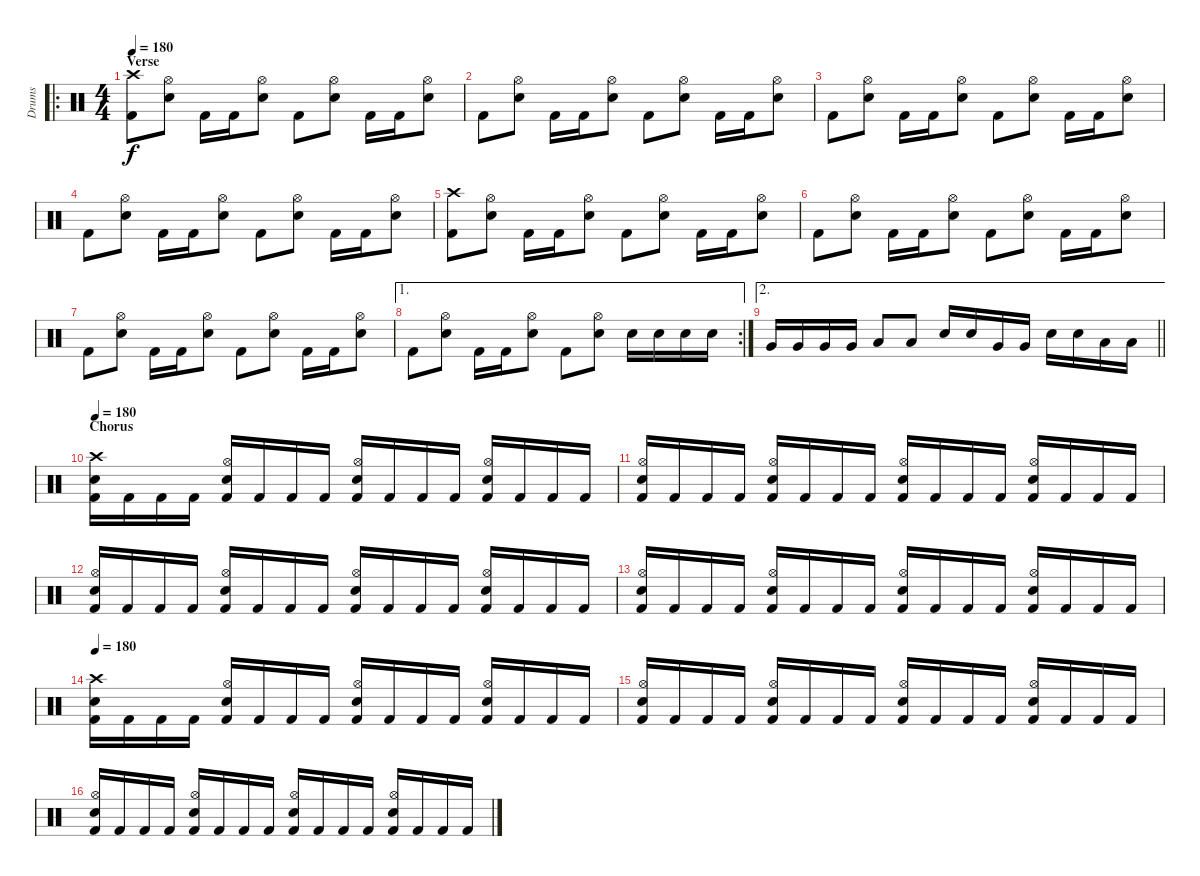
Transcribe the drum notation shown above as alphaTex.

\track ("Drums" "Drums") {instrument percussion}
\staff {score}
\articulation defaults
\ro
\ts (4 4)
\section ("" "Verse")
\tempo 180
\clef neutral
\ks c
("Crash high (hit)" "Kick (hit) 2").8{dy f} ("Hi-Hat (open)" "Electric Snare (hit)").8 "Kick (hit) 2".16 "Kick (hit) 2".16 ("Hi-Hat (open)" "Electric Snare (hit)").8 "Kick (hit) 2".8 ("Hi-Hat (open)" "Electric Snare (hit)").8 "Kick (hit) 2".16 "Kick (hit) 2".16 ("Hi-Hat (open)" "Electric Snare (hit)").8 |
"Kick (hit) 2".8 ("Hi-Hat (open)" "Electric Snare (hit)").8 "Kick (hit) 2".16 "Kick (hit) 2".16 ("Hi-Hat (open)" "Electric Snare (hit)").8 "Kick (hit) 2".8 ("Hi-Hat (open)" "Electric Snare (hit)").8 "Kick (hit) 2".16 "Kick (hit) 2".16 ("Hi-Hat (open)" "Electric Snare (hit)").8 |
"Kick (hit) 2".8 ("Hi-Hat (open)" "Electric Snare (hit)").8 "Kick (hit) 2".16 "Kick (hit) 2".16 ("Hi-Hat (open)" "Electric Snare (hit)").8 "Kick (hit) 2".8 ("Hi-Hat (open)" "Electric Snare (hit)").8 "Kick (hit) 2".16 "Kick (hit) 2".16 ("Hi-Hat (open)" "Electric Snare (hit)").8 |
"Kick (hit) 2".8 ("Hi-Hat (open)" "Electric Snare (hit)").8 "Kick (hit) 2".16 "Kick (hit) 2".16 ("Hi-Hat (open)" "Electric Snare (hit)").8 "Kick (hit) 2".8 ("Hi-Hat (open)" "Electric Snare (hit)").8 "Kick (hit) 2".16 "Kick (hit) 2".16 ("Hi-Hat (open)" "Electric Snare (hit)").8 |
("Crash high (hit)" "Kick (hit) 2").8 ("Hi-Hat (open)" "Electric Snare (hit)").8 "Kick (hit) 2".16 "Kick (hit) 2".16 ("Hi-Hat (open)" "Electric Snare (hit)").8 "Kick (hit) 2".8 ("Hi-Hat (open)" "Electric Snare (hit)").8 "Kick (hit) 2".16 "Kick (hit) 2".16 ("Hi-Hat (open)" "Electric Snare (hit)").8 |
"Kick (hit) 2".8 ("Hi-Hat (open)" "Electric Snare (hit)").8 "Kick (hit) 2".16 "Kick (hit) 2".16 ("Hi-Hat (open)" "Electric Snare (hit)").8 "Kick (hit) 2".8 ("Hi-Hat (open)" "Electric Snare (hit)").8 "Kick (hit) 2".16 "Kick (hit) 2".16 ("Hi-Hat (open)" "Electric Snare (hit)").8 |
"Kick (hit) 2".8 ("Hi-Hat (open)" "Electric Snare (hit)").8 "Kick (hit) 2".16 "Kick (hit) 2".16 ("Hi-Hat (open)" "Electric Snare (hit)").8 "Kick (hit) 2".8 ("Hi-Hat (open)" "Electric Snare (hit)").8 "Kick (hit) 2".16 "Kick (hit) 2".16 ("Hi-Hat (open)" "Electric Snare (hit)").8 |
\ae 1
\rc 2 "Kick (hit) 2".8
("Hi-Hat (open)" "Electric Snare (hit)").8 "Kick (hit) 2".16 "Kick (hit) 2".16 ("Hi-Hat (open)" "Electric Snare (hit)").8 "Kick (hit) 2".8 ("Hi-Hat (open)" "Electric Snare (hit)").8 "Electric Snare (hit)".16 "Electric Snare (hit)".16 "Electric Snare (hit)".16 "Electric Snare (hit)".16 |
\ae 2
\barLineRight lightlight "Very Low Tom (hit)".16 "Very Low Tom (hit)".16 "Very Low Tom (hit)".16 "Very Low Tom (hit)".16 "Low Floor Tom (hit)".8 "Low Floor Tom (hit)".8 "Electric Snare (hit)".16 "Electric Snare (hit)".16 "Very Low Tom (hit)".16 "Very Low Tom (hit)".16 "Electric Snare (hit)".16 "Electric Snare (hit)".16 "Low Floor Tom (hit)".16 "Low Floor Tom (hit)".16
|
\section ("" "Chorus")
\tempo 180
("Crash high (hit)" "Electric Snare (hit)" "Kick (hit) 2").16 "Kick (hit) 2".16 "Kick (hit) 2".16 "Kick (hit) 2".16 ("Hi-Hat (open)" "Electric Snare (hit)" "Kick (hit) 2").16 "Kick (hit) 2".16 "Kick (hit) 2".16 "Kick (hit) 2".16 ("Hi-Hat (open)" "Electric Snare (hit)" "Kick (hit) 2").16 "Kick (hit) 2".16 "Kick (hit) 2".16 "Kick (hit) 2".16 ("Hi-Hat (open)" "Electric Snare (hit)" "Kick (hit) 2").16 "Kick (hit) 2".16 "Kick (hit) 2".16 "Kick (hit) 2".16 |
("Hi-Hat (open)" "Electric Snare (hit)" "Kick (hit) 2").16 "Kick (hit) 2".16 "Kick (hit) 2".16 "Kick (hit) 2".16 ("Hi-Hat (open)" "Electric Snare (hit)" "Kick (hit) 2").16 "Kick (hit) 2".16 "Kick (hit) 2".16 "Kick (hit) 2".16 ("Hi-Hat (open)" "Electric Snare (hit)" "Kick (hit) 2").16 "Kick (hit) 2".16 "Kick (hit) 2".16 "Kick (hit) 2".16 ("Hi-Hat (open)" "Electric Snare (hit)" "Kick (hit) 2").16 "Kick (hit) 2".16 "Kick (hit) 2".16 "Kick (hit) 2".16 |
("Hi-Hat (open)" "Electric Snare (hit)" "Kick (hit) 2").16 "Kick (hit) 2".16 "Kick (hit) 2".16 "Kick (hit) 2".16 ("Hi-Hat (open)" "Electric Snare (hit)" "Kick (hit) 2").16 "Kick (hit) 2".16 "Kick (hit) 2".16 "Kick (hit) 2".16 ("Hi-Hat (open)" "Electric Snare (hit)" "Kick (hit) 2").16 "Kick (hit) 2".16 "Kick (hit) 2".16 "Kick (hit) 2".16 ("Hi-Hat (open)" "Electric Snare (hit)" "Kick (hit) 2").16 "Kick (hit) 2".16 "Kick (hit) 2".16 "Kick (hit) 2".16 |
("Hi-Hat (open)" "Electric Snare (hit)" "Kick (hit) 2").16 "Kick (hit) 2".16 "Kick (hit) 2".16 "Kick (hit) 2".16 ("Hi-Hat (open)" "Electric Snare (hit)" "Kick (hit) 2").16 "Kick (hit) 2".16 "Kick (hit) 2".16 "Kick (hit) 2".16 ("Hi-Hat (open)" "Electric Snare (hit)" "Kick (hit) 2").16 "Kick (hit) 2".16 "Kick (hit) 2".16 "Kick (hit) 2".16 ("Hi-Hat (open)" "Electric Snare (hit)" "Kick (hit) 2").16 "Kick (hit) 2".16 "Kick (hit) 2".16 "Kick (hit) 2".16 |
\tempo 180
("Crash high (hit)" "Electric Snare (hit)" "Kick (hit) 2").16 "Kick (hit) 2".16 "Kick (hit) 2".16 "Kick (hit) 2".16 ("Hi-Hat (open)" "Electric Snare (hit)" "Kick (hit) 2").16 "Kick (hit) 2".16 "Kick (hit) 2".16 "Kick (hit) 2".16 ("Hi-Hat (open)" "Electric Snare (hit)" "Kick (hit) 2").16 "Kick (hit) 2".16 "Kick (hit) 2".16 "Kick (hit) 2".16 ("Hi-Hat (open)" "Electric Snare (hit)" "Kick (hit) 2").16 "Kick (hit) 2".16 "Kick (hit) 2".16 "Kick (hit) 2".16 |
("Hi-Hat (open)" "Electric Snare (hit)" "Kick (hit) 2").16 "Kick (hit) 2".16 "Kick (hit) 2".16 "Kick (hit) 2".16 ("Hi-Hat (open)" "Electric Snare (hit)" "Kick (hit) 2").16 "Kick (hit) 2".16 "Kick (hit) 2".16 "Kick (hit) 2".16 ("Hi-Hat (open)" "Electric Snare (hit)" "Kick (hit) 2").16 "Kick (hit) 2".16 "Kick (hit) 2".16 "Kick (hit) 2".16 ("Hi-Hat (open)" "Electric Snare (hit)" "Kick (hit) 2").16 "Kick (hit) 2".16 "Kick (hit) 2".16 "Kick (hit) 2".16 |
("Hi-Hat (open)" "Electric Snare (hit)" "Kick (hit) 2").16 "Kick (hit) 2".16 "Kick (hit) 2".16 "Kick (hit) 2".16 ("Hi-Hat (open)" "Electric Snare (hit)" "Kick (hit) 2").16 "Kick (hit) 2".16 "Kick (hit) 2".16 "Kick (hit) 2".16 ("Hi-Hat (open)" "Electric Snare (hit)" "Kick (hit) 2").16 "Kick (hit) 2".16 "Kick (hit) 2".16 "Kick (hit) 2".16 ("Hi-Hat (open)" "Electric Snare (hit)" "Kick (hit) 2").16 "Kick (hit) 2".16 "Kick (hit) 2".16 "Kick (hit) 2".16
